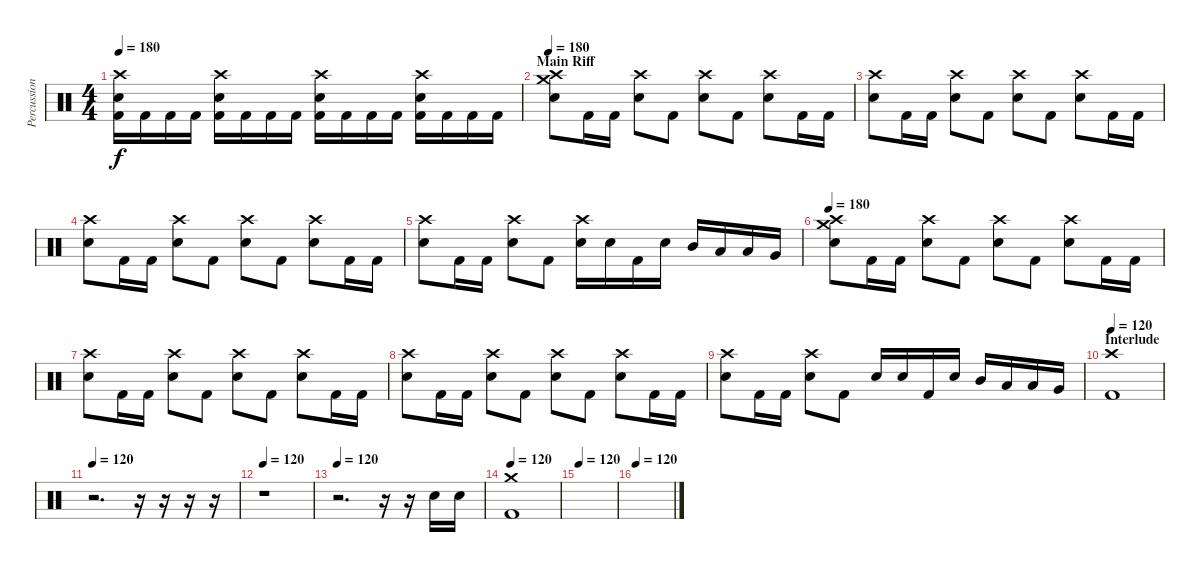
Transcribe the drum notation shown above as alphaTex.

\track ("Percussion" "Percussion") {instrument percussion}
\staff {score}
\articulation defaults
\ts (4 4)
\tempo 180
\clef neutral
\ks c
("Crash high (hit)" "Electric Snare (hit)" "Kick (hit) 2").16{dy f} "Kick (hit) 2".16 "Kick (hit) 2".16 "Kick (hit) 2".16 ("Crash high (hit)" "Electric Snare (hit)" "Kick (hit) 2").16 "Kick (hit) 2".16 "Kick (hit) 2".16 "Kick (hit) 2".16 ("Crash high (hit)" "Electric Snare (hit)" "Kick (hit) 2").16 "Kick (hit) 2".16 "Kick (hit) 2".16 "Kick (hit) 2".16 ("Crash high (hit)" "Electric Snare (hit)" "Kick (hit) 2").16 "Kick (hit) 2".16 "Kick (hit) 2".16 "Kick (hit) 2".16 |
\section ("" "Main Riff")
\tempo 180
("Crash high (hit)" "Crash medium (hit)" "Electric Snare (hit)").8 "Kick (hit) 2".16 "Kick (hit) 2".16 ("Crash high (hit)" "Electric Snare (hit)").8 "Kick (hit) 2".8 ("Crash high (hit)" "Electric Snare (hit)").8 "Kick (hit) 2".8 ("Crash high (hit)" "Electric Snare (hit)").8 "Kick (hit) 2".16 "Kick (hit) 2".16 |
("Crash high (hit)" "Electric Snare (hit)").8 "Kick (hit) 2".16 "Kick (hit) 2".16 ("Crash high (hit)" "Electric Snare (hit)").8 "Kick (hit) 2".8 ("Crash high (hit)" "Electric Snare (hit)").8 "Kick (hit) 2".8 ("Crash high (hit)" "Electric Snare (hit)").8 "Kick (hit) 2".16 "Kick (hit) 2".16 |
("Crash high (hit)" "Electric Snare (hit)").8 "Kick (hit) 2".16 "Kick (hit) 2".16 ("Crash high (hit)" "Electric Snare (hit)").8 "Kick (hit) 2".8 ("Crash high (hit)" "Electric Snare (hit)").8 "Kick (hit) 2".8 ("Crash high (hit)" "Electric Snare (hit)").8 "Kick (hit) 2".16 "Kick (hit) 2".16 |
("Crash high (hit)" "Electric Snare (hit)").8 "Kick (hit) 2".16 "Kick (hit) 2".16 ("Crash high (hit)" "Electric Snare (hit)").8 "Kick (hit) 2".8 ("Crash high (hit)" "Electric Snare (hit)").16 "Electric Snare (hit)".16 "Kick (hit) 2".16 "Electric Snare (hit)".16 "Mid Tom (hit)".16 "Low Floor Tom (hit)".16 "Low Tom (hit)".16 "Very Low Tom (hit)".16 |
\tempo 180
("Crash high (hit)" "Crash medium (hit)" "Electric Snare (hit)").8 "Kick (hit) 2".16 "Kick (hit) 2".16 ("Crash high (hit)" "Electric Snare (hit)").8 "Kick (hit) 2".8 ("Crash high (hit)" "Electric Snare (hit)").8 "Kick (hit) 2".8 ("Crash high (hit)" "Electric Snare (hit)").8 "Kick (hit) 2".16 "Kick (hit) 2".16 |
("Crash high (hit)" "Electric Snare (hit)").8 "Kick (hit) 2".16 "Kick (hit) 2".16 ("Crash high (hit)" "Electric Snare (hit)").8 "Kick (hit) 2".8 ("Crash high (hit)" "Electric Snare (hit)").8 "Kick (hit) 2".8 ("Crash high (hit)" "Electric Snare (hit)").8 "Kick (hit) 2".16 "Kick (hit) 2".16 |
("Crash high (hit)" "Electric Snare (hit)").8 "Kick (hit) 2".16 "Kick (hit) 2".16 ("Crash high (hit)" "Electric Snare (hit)").8 "Kick (hit) 2".8 ("Crash high (hit)" "Electric Snare (hit)").8 "Kick (hit) 2".8 ("Crash high (hit)" "Electric Snare (hit)").8 "Kick (hit) 2".16 "Kick (hit) 2".16 |
("Crash high (hit)" "Electric Snare (hit)").8 "Kick (hit) 2".16 "Kick (hit) 2".16 ("Crash high (hit)" "Electric Snare (hit)").8 "Kick (hit) 2".8 "Electric Snare (hit)".16 "Electric Snare (hit)".16 "Kick (hit) 2".16 "Electric Snare (hit)".16 "Mid Tom (hit)".16 "Low Floor Tom (hit)".16 "Low Tom (hit)".16 "Very Low Tom (hit)".16 |
\section ("" "Interlude")
\tempo 120
("Crash high (hit)" "Kick (hit) 2").1 |
\tempo 120
r.2{d} r.16 r.16 r.16 r.16 |
\tempo 120
r.1 |
\tempo 120
r.2{d} r.16 r.16 "Electric Snare (hit)".16 "Electric Snare (hit)".16 |
\tempo 120
("Crash medium (hit)" "Kick (hit) 2").1 |
\tempo 120
|
\tempo 120
